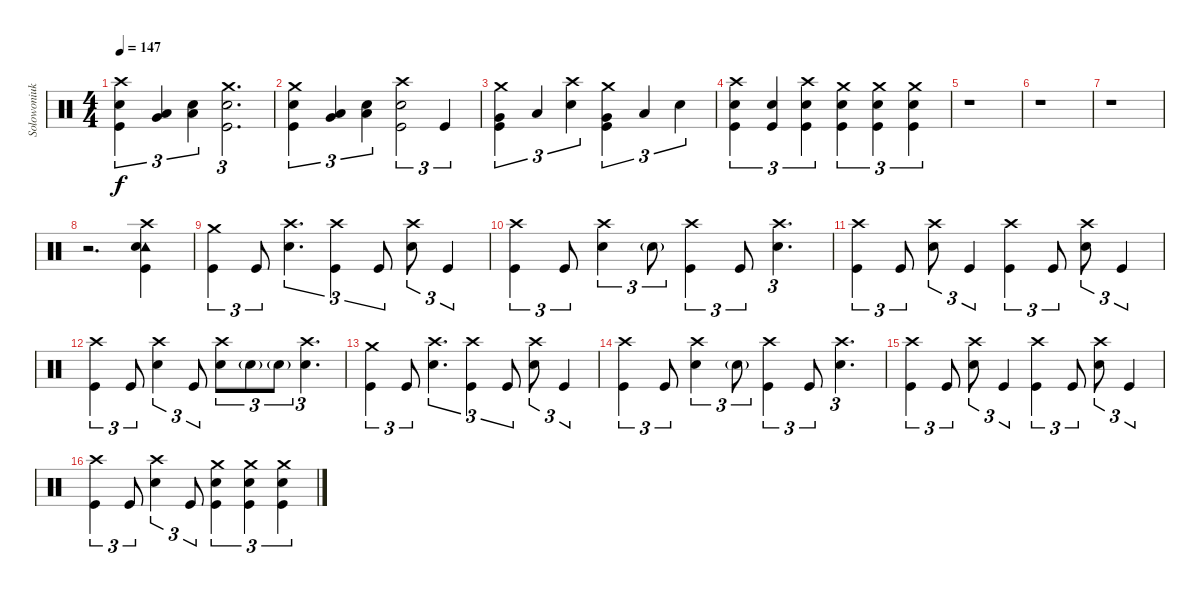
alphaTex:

\track ("Solowoniuk " "Solowoniuk") {instrument percussion}
\staff {score}
\articulation defaults
\ts (4 4)
\tempo 147
\clef neutral
\ks c
("Crash high (hit)" "Snare (hit) 2" "Kick (hit)").4{tu (3 2) dy f} ("Very Low Tom (hit)" "Low Floor Tom (hit)").4{tu (3 2)} ("Low Floor Tom (hit)" "Snare (hit) 2").4{tu (3 2)} ("Crash medium (hit)" "Snare (hit) 2" "Kick (hit)").2{d tu (3 2)} |
("Crash medium (hit)" "Snare (hit) 2" "Kick (hit)").4{tu (3 2)} ("Very Low Tom (hit)" "Low Floor Tom (hit)").4{tu (3 2)} ("Low Floor Tom (hit)" "Snare (hit) 2").4{tu (3 2)} ("Crash high (hit)" "Snare (hit) 2" "Kick (hit)").2{tu (3 2)} "Kick (hit)".4{tu (3 2)} |
("Crash medium (hit)" "Very Low Tom (hit)" "Kick (hit)").4{tu (3 2)} "Low Floor Tom (hit)".4{tu (3 2)} ("Crash high (hit)" "Snare (hit) 2").4{tu (3 2)} ("Crash medium (hit)" "Very Low Tom (hit)" "Kick (hit)").4{tu (3 2)} "Low Floor Tom (hit)".4{tu (3 2)} "Snare (hit) 2".4{tu (3 2)} |
("Crash high (hit)" "Snare (hit) 2" "Kick (hit)").4{tu (3 2)} ("Snare (hit) 2" "Kick (hit)").4{tu (3 2)} ("Crash high (hit)" "Snare (hit) 2" "Kick (hit)").4{tu (3 2)} ("Crash medium (hit)" "Snare (hit) 2" "Kick (hit)").4{tu (3 2)} ("Crash medium (hit)" "Snare (hit) 2" "Kick (hit)").4{tu (3 2)} ("Crash medium (hit)" "Snare (hit) 2" "Kick (hit)").4{tu (3 2)} |
r.1 |
r.1 |
r.1 |
r.2{d} ("Crash high (hit)" "Tambourine (hit)" "Snare (hit) 2" "Kick (hit)").4 |
("Crash medium (hit)" "Kick (hit)").4{tu (3 2)} "Kick (hit)".8{tu (3 2)} ("Crash high (hit)" "Snare (hit) 2").4{d tu (3 2)} ("Crash high (hit)" "Kick (hit)").4{tu (3 2)} "Kick (hit)".8{tu (3 2)} ("Crash high (hit)" "Snare (hit) 2").8{tu (3 2)} "Kick (hit)".4{tu (3 2)} |
("Crash high (hit)" "Kick (hit)").4{tu (3 2)} "Kick (hit)".8{tu (3 2)} ("Crash high (hit)" "Snare (hit) 2").4{tu (3 2)} "Snare (hit) 2"{g}.8{tu (3 2)} ("Crash high (hit)" "Kick (hit)").4{tu (3 2)} "Kick (hit)".8{tu (3 2)} ("Crash high (hit)" "Snare (hit) 2").4{d tu (3 2)} |
("Crash high (hit)" "Kick (hit)").4{tu (3 2)} "Kick (hit)".8{tu (3 2)} ("Crash high (hit)" "Snare (hit) 2").8{tu (3 2)} "Kick (hit)".4{tu (3 2)} ("Crash high (hit)" "Kick (hit)").4{tu (3 2)} "Kick (hit)".8{tu (3 2)} ("Crash high (hit)" "Snare (hit) 2").8{tu (3 2)} "Kick (hit)".4{tu (3 2)} |
("Crash high (hit)" "Kick (hit)").4{tu (3 2)} "Kick (hit)".8{tu (3 2)} ("Crash high (hit)" "Snare (hit) 2").4{tu (3 2)} "Kick (hit)".8{tu (3 2)} ("Crash high (hit)" "Snare (hit) 2").8{tu (3 2)} "Snare (hit) 2"{g}.8{tu (3 2)} "Snare (hit) 2"{g}.8{tu (3 2)} ("Crash high (hit)" "Snare (hit) 2").4{d tu (3 2)} |
("Crash medium (hit)" "Kick (hit)").4{tu (3 2)} "Kick (hit)".8{tu (3 2)} ("Crash high (hit)" "Snare (hit) 2").4{d tu (3 2)} ("Crash high (hit)" "Kick (hit)").4{tu (3 2)} "Kick (hit)".8{tu (3 2)} ("Crash high (hit)" "Snare (hit) 2").8{tu (3 2)} "Kick (hit)".4{tu (3 2)} |
("Crash high (hit)" "Kick (hit)").4{tu (3 2)} "Kick (hit)".8{tu (3 2)} ("Crash high (hit)" "Snare (hit) 2").4{tu (3 2)} "Snare (hit) 2"{g}.8{tu (3 2)} ("Crash high (hit)" "Kick (hit)").4{tu (3 2)} "Kick (hit)".8{tu (3 2)} ("Crash high (hit)" "Snare (hit) 2").4{d tu (3 2)} |
("Crash high (hit)" "Kick (hit)").4{tu (3 2)} "Kick (hit)".8{tu (3 2)} ("Crash high (hit)" "Snare (hit) 2").8{tu (3 2)} "Kick (hit)".4{tu (3 2)} ("Crash high (hit)" "Kick (hit)").4{tu (3 2)} "Kick (hit)".8{tu (3 2)} ("Crash high (hit)" "Snare (hit) 2").8{tu (3 2)} "Kick (hit)".4{tu (3 2)} |
("Crash high (hit)" "Kick (hit)").4{tu (3 2)} "Kick (hit)".8{tu (3 2)} ("Crash high (hit)" "Snare (hit) 2").4{tu (3 2)} "Kick (hit)".8{tu (3 2)} ("Crash medium (hit)" "Snare (hit) 2" "Kick (hit)").4{tu (3 2)} ("Crash medium (hit)" "Snare (hit) 2" "Kick (hit)").4{tu (3 2)} ("Crash medium (hit)" "Snare (hit) 2" "Kick (hit)").4{tu (3 2)}
